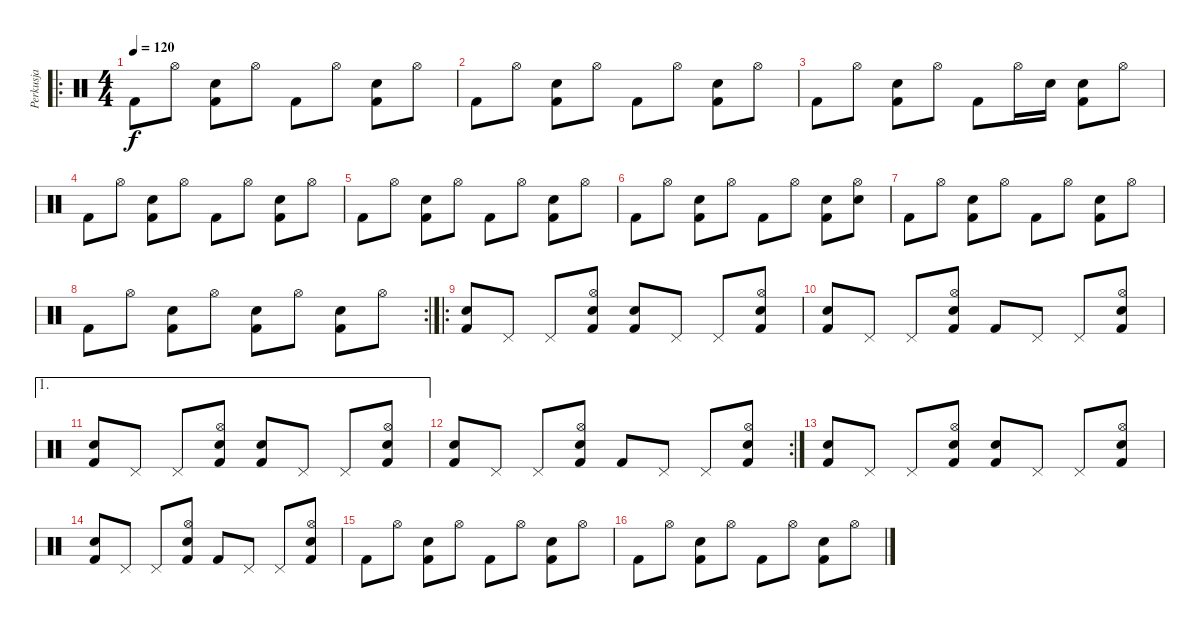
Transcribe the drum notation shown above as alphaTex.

\track ("Perkusja" "Perkusja") {instrument percussion}
\staff {score}
\articulation defaults
\ro
\ts (4 4)
\tempo 120
\clef neutral
\ks c "Kick (hit) 2".8{dy f} "Hi-Hat (open)".8
("Snare (hit) 2" "Kick (hit) 2").8 "Hi-Hat (open)".8 "Kick (hit) 2".8 "Hi-Hat (open)".8 ("Snare (hit) 2" "Kick (hit) 2").8 "Hi-Hat (open)".8 |
"Kick (hit) 2".8 "Hi-Hat (open)".8 ("Snare (hit) 2" "Kick (hit) 2").8 "Hi-Hat (open)".8 "Kick (hit) 2".8 "Hi-Hat (open)".8 ("Snare (hit) 2" "Kick (hit) 2").8 "Hi-Hat (open)".8 |
"Kick (hit) 2".8 "Hi-Hat (open)".8 ("Snare (hit) 2" "Kick (hit) 2").8 "Hi-Hat (open)".8 "Kick (hit) 2".8 "Hi-Hat (open)".16 "Snare (hit) 2".16 ("Snare (hit) 2" "Kick (hit) 2").8 "Hi-Hat (open)".8 |
"Kick (hit) 2".8 "Hi-Hat (open)".8 ("Snare (hit) 2" "Kick (hit) 2").8 "Hi-Hat (open)".8 "Kick (hit) 2".8 "Hi-Hat (open)".8 ("Snare (hit) 2" "Kick (hit) 2").8 "Hi-Hat (open)".8 |
"Kick (hit) 2".8 "Hi-Hat (open)".8 ("Snare (hit) 2" "Kick (hit) 2").8 "Hi-Hat (open)".8 "Kick (hit) 2".8 "Hi-Hat (open)".8 ("Snare (hit) 2" "Kick (hit) 2").8 "Hi-Hat (open)".8 |
"Kick (hit) 2".8 "Hi-Hat (open)".8 ("Snare (hit) 2" "Kick (hit) 2").8 "Hi-Hat (open)".8 "Kick (hit) 2".8 "Hi-Hat (open)".8 ("Snare (hit) 2" "Kick (hit) 2").8 ("Snare (hit) 2" "Hi-Hat (open)").8 |
"Kick (hit) 2".8 "Hi-Hat (open)".8 ("Snare (hit) 2" "Kick (hit) 2").8 "Hi-Hat (open)".8 "Kick (hit) 2".8 "Hi-Hat (open)".8 ("Snare (hit) 2" "Kick (hit) 2").8 "Hi-Hat (open)".8 |
\rc 2 "Kick (hit) 2".8 "Hi-Hat (open)".8
("Snare (hit) 2" "Kick (hit) 2").8 "Hi-Hat (open)".8 ("Snare (hit) 2" "Kick (hit) 2").8 "Hi-Hat (open)".8 ("Snare (hit) 2" "Kick (hit) 2").8 "Hi-Hat (open)".8 |
\ro
("Snare (hit) 2" "Kick (hit) 2").8 "Pedal Hi-Hat (hit)".8 "Pedal Hi-Hat (hit)".8 ("Snare (hit) 2" "Hi-Hat (open)" "Kick (hit) 2").8 ("Snare (hit) 2" "Kick (hit) 2").8 "Pedal Hi-Hat (hit)".8 "Pedal Hi-Hat (hit)".8 ("Snare (hit) 2" "Hi-Hat (open)" "Kick (hit) 2").8 |
("Snare (hit) 2" "Kick (hit) 2").8 "Pedal Hi-Hat (hit)".8 "Pedal Hi-Hat (hit)".8 ("Snare (hit) 2" "Hi-Hat (open)" "Kick (hit) 2").8 "Kick (hit) 2".8 "Pedal Hi-Hat (hit)".8 "Pedal Hi-Hat (hit)".8 ("Snare (hit) 2" "Hi-Hat (open)" "Kick (hit) 2").8 |
\ae 1
("Snare (hit) 2" "Kick (hit) 2").8 "Pedal Hi-Hat (hit)".8 "Pedal Hi-Hat (hit)".8 ("Snare (hit) 2" "Hi-Hat (open)" "Kick (hit) 2").8 ("Snare (hit) 2" "Kick (hit) 2").8 "Pedal Hi-Hat (hit)".8 "Pedal Hi-Hat (hit)".8 ("Snare (hit) 2" "Hi-Hat (open)" "Kick (hit) 2").8 |
\rc 2
("Snare (hit) 2" "Kick (hit) 2").8 "Pedal Hi-Hat (hit)".8 "Pedal Hi-Hat (hit)".8 ("Snare (hit) 2" "Hi-Hat (open)" "Kick (hit) 2").8 "Kick (hit) 2".8 "Pedal Hi-Hat (hit)".8 "Pedal Hi-Hat (hit)".8 ("Snare (hit) 2" "Hi-Hat (open)" "Kick (hit) 2").8 |
("Snare (hit) 2" "Kick (hit) 2").8 "Pedal Hi-Hat (hit)".8 "Pedal Hi-Hat (hit)".8 ("Snare (hit) 2" "Hi-Hat (open)" "Kick (hit) 2").8 ("Snare (hit) 2" "Kick (hit) 2").8 "Pedal Hi-Hat (hit)".8 "Pedal Hi-Hat (hit)".8 ("Snare (hit) 2" "Hi-Hat (open)" "Kick (hit) 2").8 |
("Snare (hit) 2" "Kick (hit) 2").8 "Pedal Hi-Hat (hit)".8 "Pedal Hi-Hat (hit)".8 ("Snare (hit) 2" "Hi-Hat (open)" "Kick (hit) 2").8 "Kick (hit) 2".8 "Pedal Hi-Hat (hit)".8 "Pedal Hi-Hat (hit)".8 ("Snare (hit) 2" "Hi-Hat (open)" "Kick (hit) 2").8 |
"Kick (hit) 2".8 "Hi-Hat (open)".8 ("Snare (hit) 2" "Kick (hit) 2").8 "Hi-Hat (open)".8 "Kick (hit) 2".8 "Hi-Hat (open)".8 ("Snare (hit) 2" "Kick (hit) 2").8 "Hi-Hat (open)".8 |
"Kick (hit) 2".8 "Hi-Hat (open)".8 ("Snare (hit) 2" "Kick (hit) 2").8 "Hi-Hat (open)".8 "Kick (hit) 2".8 "Hi-Hat (open)".8 ("Snare (hit) 2" "Kick (hit) 2").8 "Hi-Hat (open)".8
